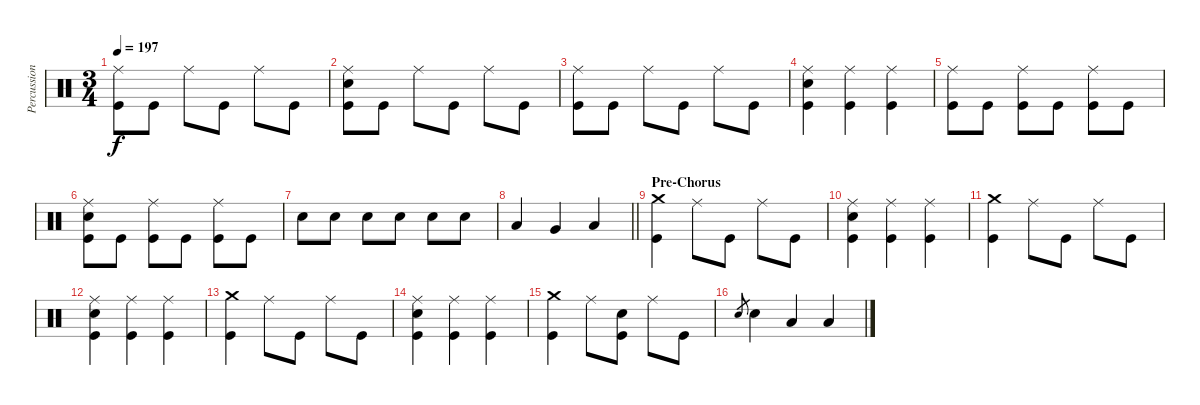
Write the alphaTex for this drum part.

\track ("Percussion" "Percussion") {instrument percussion}
\staff {score}
\articulation defaults
\ts (3 4)
\tempo 197
\clef neutral
\ks c
("Ride (middle)" "Kick (hit)").8{dy f} "Kick (hit)".8 "Ride (middle)".8 "Kick (hit)".8 "Ride (middle)".8 "Kick (hit)".8 |
("Ride (middle)" "Electric Snare (hit)" "Kick (hit)").8 "Kick (hit)".8 "Ride (middle)".8 "Kick (hit)".8 "Ride (middle)".8 "Kick (hit)".8 |
("Ride (middle)" "Kick (hit)").8 "Kick (hit)".8 "Ride (middle)".8 "Kick (hit)".8 "Ride (middle)".8 "Kick (hit)".8 |
("Ride (middle)" "Electric Snare (hit)" "Kick (hit)").4 ("Ride (middle)" "Kick (hit)").4 ("Ride (middle)" "Kick (hit)").4 |
("Ride (middle)" "Kick (hit)").8 "Kick (hit)".8 ("Ride (middle)" "Kick (hit)").8 "Kick (hit)".8 ("Ride (middle)" "Kick (hit)").8 "Kick (hit)".8 |
("Ride (middle)" "Electric Snare (hit)" "Kick (hit)").8 "Kick (hit)".8 ("Ride (middle)" "Kick (hit)").8 "Kick (hit)".8 ("Ride (middle)" "Kick (hit)").8 "Kick (hit)".8 |
"Electric Snare (hit)".8 "Electric Snare (hit)".8 "Electric Snare (hit)".8 "Electric Snare (hit)".8 "Electric Snare (hit)".8 "Electric Snare (hit)".8 |
\barLineRight lightlight "Low Tom (hit)".4 "Very Low Tom (hit)".4 "Low Floor Tom (hit)".4
|
\section ("" "Pre-Chorus")
("Crash medium (hit)" "Kick (hit)").4 "Ride (middle)".8 "Kick (hit)".8 "Ride (middle)".8 "Kick (hit)".8 |
("Ride (middle)" "Electric Snare (hit)" "Kick (hit)").4 ("Ride (middle)" "Kick (hit)").4 ("Ride (middle)" "Kick (hit)").4 |
("Crash medium (hit)" "Kick (hit)").4 "Ride (middle)".8 "Kick (hit)".8 "Ride (middle)".8 "Kick (hit)".8 |
("Ride (middle)" "Electric Snare (hit)" "Kick (hit)").4 ("Ride (middle)" "Kick (hit)").4 ("Ride (middle)" "Kick (hit)").4 |
("Crash medium (hit)" "Kick (hit)").4 "Ride (middle)".8 "Kick (hit)".8 "Ride (middle)".8 "Kick (hit)".8 |
("Ride (middle)" "Electric Snare (hit)" "Kick (hit)").4 ("Ride (middle)" "Kick (hit)").4 ("Ride (middle)" "Kick (hit)").4 |
("Crash medium (hit)" "Kick (hit)").4 "Ride (middle)".8 ("Electric Snare (hit)" "Kick (hit)").8 "Ride (middle)".8 "Kick (hit)".8 |
"Electric Snare (hit)".8{gr} "Electric Snare (hit)".4 "Low Floor Tom (hit)".4 "Low Floor Tom (hit)".4
